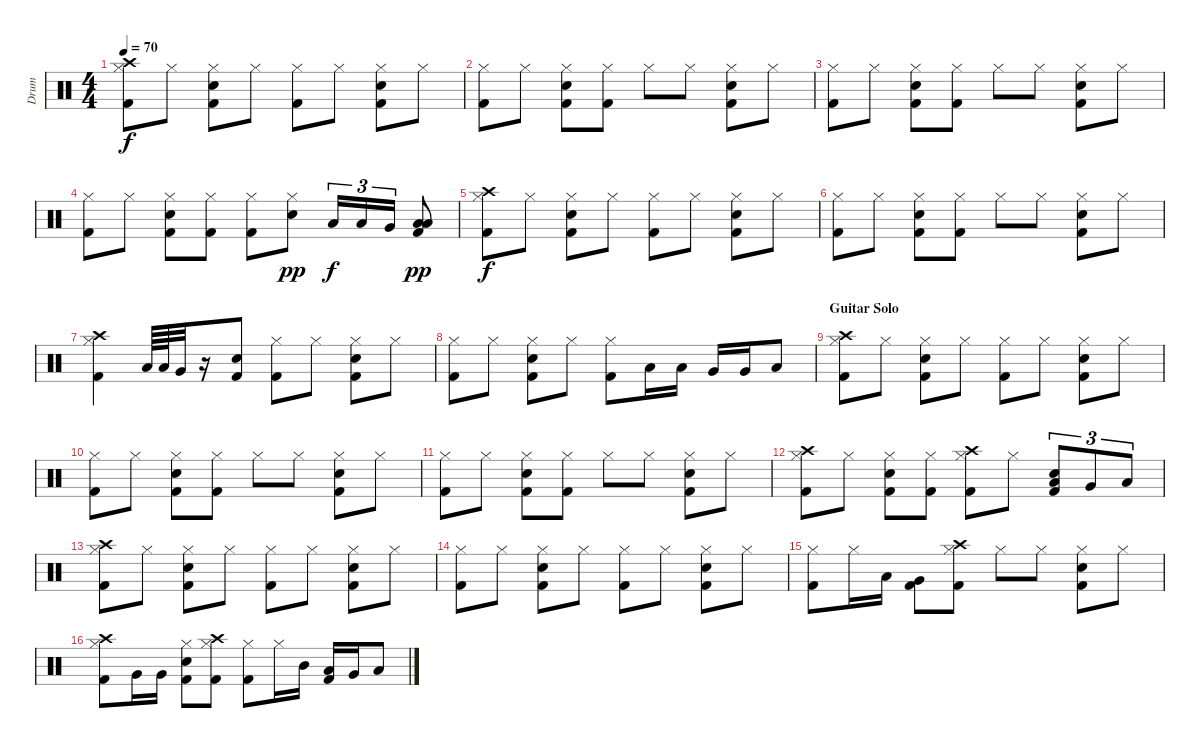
\track ("Drum" "Drum") {instrument percussion}
\staff {score}
\articulation defaults
\ts (4 4)
\tempo 70
\clef neutral
\ks c
("Crash high (hit)" "Hi-Hat (closed)" "Kick (hit) 2").8{dy f} "Hi-Hat (closed)".8 ("Hi-Hat (closed)" "Electric Snare (hit)" "Kick (hit) 2").8 "Hi-Hat (closed)".8 ("Hi-Hat (closed)" "Kick (hit) 2").8 "Hi-Hat (closed)".8 ("Hi-Hat (closed)" "Electric Snare (hit)" "Kick (hit) 2").8 "Hi-Hat (closed)".8 |
("Hi-Hat (closed)" "Kick (hit) 2").8 "Hi-Hat (closed)".8 ("Hi-Hat (closed)" "Electric Snare (hit)" "Kick (hit) 2").8 ("Hi-Hat (closed)" "Kick (hit) 2").8 "Hi-Hat (closed)".8 "Hi-Hat (closed)".8 ("Hi-Hat (closed)" "Electric Snare (hit)" "Kick (hit) 2").8 "Hi-Hat (closed)".8 |
("Hi-Hat (closed)" "Kick (hit) 2").8 "Hi-Hat (closed)".8 ("Hi-Hat (closed)" "Electric Snare (hit)" "Kick (hit) 2").8 ("Hi-Hat (closed)" "Kick (hit) 2").8 "Hi-Hat (closed)".8 "Hi-Hat (closed)".8 ("Hi-Hat (closed)" "Electric Snare (hit)" "Kick (hit) 2").8 "Hi-Hat (closed)".8 |
("Hi-Hat (closed)" "Kick (hit) 2").8 "Hi-Hat (closed)".8 ("Hi-Hat (closed)" "Electric Snare (hit)" "Kick (hit) 2").8 ("Hi-Hat (closed)" "Kick (hit) 2").8 ("Hi-Hat (closed)" "Kick (hit) 2").8 ("Hi-Hat (closed)" "Electric Snare (hit)").8{dy pp} "Low Tom (hit)".16{tu (3 2) dy f} "Low Tom (hit)".16{tu (3 2)} "Very Low Tom (hit)".16{tu (3 2)} ("Low Floor Tom (hit)" "Low Floor Tom (hit)" "Kick (hit) 2").8{dy pp} |
("Crash high (hit)" "Hi-Hat (closed)" "Kick (hit) 2").8{dy f} "Hi-Hat (closed)".8 ("Hi-Hat (closed)" "Electric Snare (hit)" "Kick (hit) 2").8 "Hi-Hat (closed)".8 ("Hi-Hat (closed)" "Kick (hit) 2").8 "Hi-Hat (closed)".8 ("Hi-Hat (closed)" "Electric Snare (hit)" "Kick (hit) 2").8 "Hi-Hat (closed)".8 |
("Hi-Hat (closed)" "Kick (hit) 2").8 "Hi-Hat (closed)".8 ("Hi-Hat (closed)" "Electric Snare (hit)" "Kick (hit) 2").8 ("Hi-Hat (closed)" "Kick (hit) 2").8 "Hi-Hat (closed)".8 "Hi-Hat (closed)".8 ("Hi-Hat (closed)" "Electric Snare (hit)" "Kick (hit) 2").8 "Hi-Hat (closed)".8 |
("Crash high (hit)" "Hi-Hat (closed)" "Kick (hit) 2").4 "Low Tom (hit)".64 "Low Tom (hit)".64 "Very Low Tom (hit)".32 r.16 ("Electric Snare (hit)" "Kick (hit) 2").8 ("Hi-Hat (closed)" "Kick (hit) 2").8 "Hi-Hat (closed)".8 ("Hi-Hat (closed)" "Electric Snare (hit)" "Kick (hit) 2").8 "Hi-Hat (closed)".8 |
("Hi-Hat (closed)" "Kick (hit) 2").8 "Hi-Hat (closed)".8 ("Hi-Hat (closed)" "Electric Snare (hit)" "Kick (hit) 2").8 "Hi-Hat (closed)".8 ("Hi-Hat (closed)" "Kick (hit) 2").8 "Low Tom (hit)".16 "Low Tom (hit)".16 "Very Low Tom (hit)".16 "Very Low Tom (hit)".16 "Low Floor Tom (hit)".8 |
\section ("" "Guitar Solo")
("Crash high (hit)" "Hi-Hat (closed)" "Kick (hit) 2").8 "Hi-Hat (closed)".8 ("Hi-Hat (closed)" "Electric Snare (hit)" "Kick (hit) 2").8 "Hi-Hat (closed)".8 ("Hi-Hat (closed)" "Kick (hit) 2").8 "Hi-Hat (closed)".8 ("Hi-Hat (closed)" "Electric Snare (hit)" "Kick (hit) 2").8 "Hi-Hat (closed)".8 |
("Hi-Hat (closed)" "Kick (hit) 2").8 "Hi-Hat (closed)".8 ("Hi-Hat (closed)" "Electric Snare (hit)" "Kick (hit) 2").8 ("Hi-Hat (closed)" "Kick (hit) 2").8 "Hi-Hat (closed)".8 "Hi-Hat (closed)".8 ("Hi-Hat (closed)" "Electric Snare (hit)" "Kick (hit) 2").8 "Hi-Hat (closed)".8 |
("Hi-Hat (closed)" "Kick (hit) 2").8 "Hi-Hat (closed)".8 ("Hi-Hat (closed)" "Electric Snare (hit)" "Kick (hit) 2").8 ("Hi-Hat (closed)" "Kick (hit) 2").8 "Hi-Hat (closed)".8 "Hi-Hat (closed)".8 ("Hi-Hat (closed)" "Electric Snare (hit)" "Kick (hit) 2").8 "Hi-Hat (closed)".8 |
("Crash high (hit)" "Hi-Hat (closed)" "Kick (hit) 2").8 "Hi-Hat (closed)".8 ("Hi-Hat (closed)" "Electric Snare (hit)" "Kick (hit) 2").8 ("Hi-Hat (closed)" "Kick (hit) 2").8 ("Crash high (hit)" "Hi-Hat (closed)" "Kick (hit) 2").8 "Hi-Hat (closed)".8 ("Low Tom (hit)" "Electric Snare (hit)" "Kick (hit) 2").8{tu (3 2)} "Very Low Tom (hit)".8{tu (3 2)} "Low Floor Tom (hit)".8{tu (3 2)} |
("Crash high (hit)" "Hi-Hat (closed)" "Kick (hit) 2").8 "Hi-Hat (closed)".8 ("Hi-Hat (closed)" "Electric Snare (hit)" "Kick (hit) 2").8 "Hi-Hat (closed)".8 ("Hi-Hat (closed)" "Kick (hit) 2").8 "Hi-Hat (closed)".8 ("Hi-Hat (closed)" "Electric Snare (hit)" "Kick (hit) 2").8 "Hi-Hat (closed)".8 |
("Hi-Hat (closed)" "Kick (hit) 2").8 "Hi-Hat (closed)".8 ("Hi-Hat (closed)" "Electric Snare (hit)" "Kick (hit) 2").8 "Hi-Hat (closed)".8 ("Hi-Hat (closed)" "Kick (hit) 2").8 "Hi-Hat (closed)".8 ("Hi-Hat (closed)" "Electric Snare (hit)" "Kick (hit) 2").8 "Hi-Hat (closed)".8 |
("Hi-Hat (closed)" "Kick (hit) 2").8 "Hi-Hat (closed)".16 "Low Floor Tom (hit)".16 ("Very Low Tom (hit)" "Kick (hit) 2").8 ("Crash high (hit)" "Hi-Hat (closed)" "Kick (hit) 2").8 "Hi-Hat (closed)".8 "Hi-Hat (closed)".8 ("Hi-Hat (closed)" "Electric Snare (hit)" "Kick (hit) 2").8 "Hi-Hat (closed)".8 |
("Crash high (hit)" "Hi-Hat (closed)" "Kick (hit) 2").8 "Very Low Tom (hit)".16 "Very Low Tom (hit)".16 ("Hi-Hat (closed)" "Electric Snare (hit)" "Kick (hit) 2").8 ("Crash high (hit)" "Hi-Hat (closed)" "Kick (hit) 2").8 ("Hi-Hat (closed)" "Kick (hit) 2").8 "Hi-Hat (closed)".16 "Mid Tom (hit)".16 ("Low Tom (hit)" "Kick (hit) 2").16 "Very Low Tom (hit)".16 "Low Floor Tom (hit)".8
